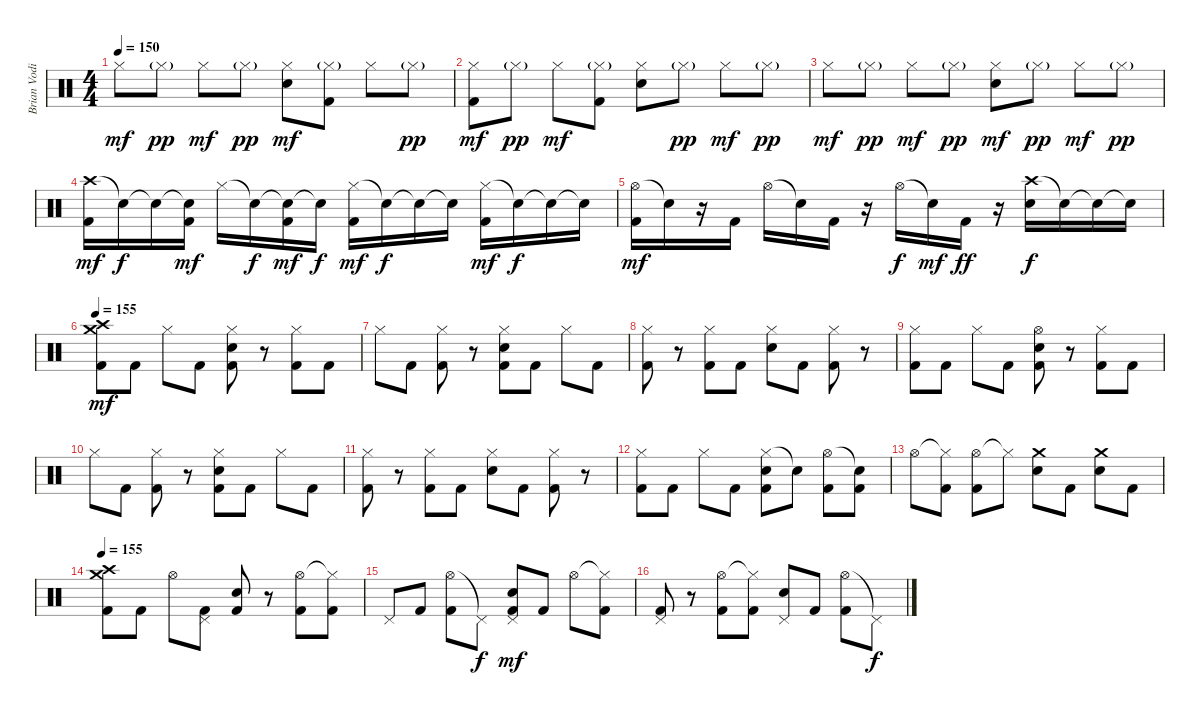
\track ("Brian Vodinh" "Brian Vodi") {instrument percussion}
\staff {score}
\articulation defaults
\ts (4 4)
\tempo 150
\clef neutral
\ks c "Hi-Hat (closed)".8{dy mf} "Hi-Hat (closed)"{g}.8{dy pp} "Hi-Hat (closed)".8{dy mf} "Hi-Hat (closed)"{g}.8{dy pp}
("Hi-Hat (closed)" "Electric Snare (hit)").8{dy mf} ("Hi-Hat (closed)"{g} "Kick (hit) 2").8 "Hi-Hat (closed)".8 "Hi-Hat (closed)"{g}.8{dy pp} |
("Hi-Hat (closed)" "Kick (hit) 2").8{dy mf} "Hi-Hat (closed)"{g}.8{dy pp} "Hi-Hat (closed)".8{dy mf} ("Hi-Hat (closed)"{g} "Kick (hit) 2").8 ("Hi-Hat (closed)" "Electric Snare (hit)").8 "Hi-Hat (closed)"{g}.8{dy pp} "Hi-Hat (closed)".8{dy mf} "Hi-Hat (closed)"{g}.8{dy pp} |
"Hi-Hat (closed)".8{dy mf} "Hi-Hat (closed)"{g}.8{dy pp} "Hi-Hat (closed)".8{dy mf} "Hi-Hat (closed)"{g}.8{dy pp} ("Hi-Hat (closed)" "Electric Snare (hit)").8{dy mf} "Hi-Hat (closed)"{g}.8{dy pp} "Hi-Hat (closed)".8{dy mf} "Hi-Hat (closed)"{g}.8{dy pp} |
("Crash high (hit)" "Kick (hit) 2").16{dy mf} "Snare (hit)"{t}.16{dy f} "Snare (hit)"{t}.16 ("Snare (hit)"{t} "Kick (hit) 2").16{dy mf} "Hi-Hat (closed)".16 "Snare (hit)"{t}.16{dy f} ("Snare (hit)"{t} "Kick (hit) 2").16{dy mf} "Snare (hit)"{t}.16{dy f} ("Hi-Hat (closed)" "Kick (hit) 2").16{dy mf} "Snare (hit)"{t}.16{dy f} "Snare (hit)"{t}.16 "Snare (hit)"{t}.16 ("Hi-Hat (closed)" "Kick (hit) 2").16{dy mf} "Snare (hit)"{t}.16{dy f} "Snare (hit)"{t}.16 "Snare (hit)"{t}.16 |
("Hi-Hat (open)" "Kick (hit) 2").16{dy mf} "Snare (hit)"{t}.16 r.16 "Kick (hit) 2".16 "Hi-Hat (open)".16 "Snare (hit)"{t}.16 "Kick (hit) 2".16 r.16 "Hi-Hat (open)".16{dy f} "Snare (hit)"{t}.16{dy mf} "Kick (hit) 2".16{dy ff} r.16 ("Crash high (hit)" "Electric Snare (hit)").16{dy f} "Snare (hit)"{t}.16 "Snare (hit)"{t}.16 "Snare (hit)"{t}.16 |
\tempo 155
("Crash high (hit)" "Crash medium (hit)" "Kick (hit) 2").8{dy mf} "Kick (hit) 2".8 "Hi-Hat (closed)".8 "Kick (hit) 2".8 ("Hi-Hat (closed)" "Electric Snare (hit)" "Kick (hit) 2").8 r.8 ("Hi-Hat (closed)" "Kick (hit) 2").8 "Kick (hit) 2".8 |
"Hi-Hat (closed)".8 "Kick (hit) 2".8 ("Hi-Hat (closed)" "Kick (hit) 2").8 r.8 ("Hi-Hat (closed)" "Electric Snare (hit)" "Kick (hit) 2").8 "Kick (hit) 2".8 "Hi-Hat (closed)".8 "Kick (hit) 2".8 |
("Hi-Hat (closed)" "Kick (hit) 2").8 r.8 ("Hi-Hat (closed)" "Kick (hit) 2").8 "Kick (hit) 2".8 ("Hi-Hat (closed)" "Electric Snare (hit)").8 "Kick (hit) 2".8 ("Hi-Hat (closed)" "Kick (hit) 2").8 r.8 |
("Hi-Hat (closed)" "Kick (hit) 2").8 "Kick (hit) 2".8 "Hi-Hat (closed)".8 "Kick (hit) 2".8 ("Hi-Hat (open)" "Electric Snare (hit)" "Kick (hit) 2").8 r.8 ("Hi-Hat (closed)" "Kick (hit) 2").8 "Kick (hit) 2".8 |
"Hi-Hat (closed)".8 "Kick (hit) 2".8 ("Hi-Hat (closed)" "Kick (hit) 2").8 r.8 ("Hi-Hat (closed)" "Electric Snare (hit)" "Kick (hit) 2").8 "Kick (hit) 2".8 "Hi-Hat (closed)".8 "Kick (hit) 2".8 |
("Hi-Hat (closed)" "Kick (hit) 2").8 r.8 ("Hi-Hat (closed)" "Kick (hit) 2").8 "Kick (hit) 2".8 ("Hi-Hat (closed)" "Electric Snare (hit)").8 "Kick (hit) 2".8 ("Hi-Hat (closed)" "Kick (hit) 2").8 r.8 |
("Hi-Hat (closed)" "Kick (hit) 2").8 "Kick (hit) 2".8 "Hi-Hat (closed)".8 "Kick (hit) 2".8 ("Hi-Hat (closed)" "Electric Snare (hit)" "Kick (hit) 2").8 "Snare (hit)"{t}.8 ("Hi-Hat (open)" "Kick (hit) 2").8 ("Snare (hit)"{t} "Kick (hit) 2").8 |
"Hi-Hat (open)".8 ("Hi-Hat (closed)"{t} "Kick (hit) 2").8 ("Hi-Hat (open)" "Kick (hit) 2").8 "Hi-Hat (closed)"{t}.8 ("Crash medium (hit)" "Electric Snare (hit)").8 "Kick (hit) 2".8 ("Crash medium (hit)" "Electric Snare (hit)").8 "Kick (hit) 2".8 |
\tempo 155
("Crash high (hit)" "Crash medium (hit)" "Kick (hit) 2").8 "Kick (hit) 2".8 "Hi-Hat (open)".8 ("Pedal Hi-Hat (hit)" "Kick (hit) 2").8 ("Electric Snare (hit)" "Kick (hit) 2").8 r.8 ("Hi-Hat (open)" "Kick (hit) 2").8 ("Hi-Hat (closed)"{t} "Kick (hit) 2").8 |
"Pedal Hi-Hat (hit)".8 "Kick (hit) 2".8 ("Hi-Hat (open)" "Kick (hit) 2").8 "Pedal Hi-Hat (hit)"{t}.8{dy f} ("Pedal Hi-Hat (hit)" "Electric Snare (hit)" "Kick (hit) 2").8{dy mf} "Kick (hit) 2".8 "Hi-Hat (open)".8 ("Hi-Hat (closed)"{t} "Kick (hit) 2").8 |
("Pedal Hi-Hat (hit)" "Kick (hit) 2").8 r.8 ("Hi-Hat (open)" "Kick (hit) 2").8 ("Hi-Hat (closed)"{t} "Kick (hit) 2").8 ("Pedal Hi-Hat (hit)" "Electric Snare (hit)").8 "Kick (hit) 2".8 ("Hi-Hat (open)" "Kick (hit) 2").8 "Pedal Hi-Hat (hit)"{t}.8{dy f}
